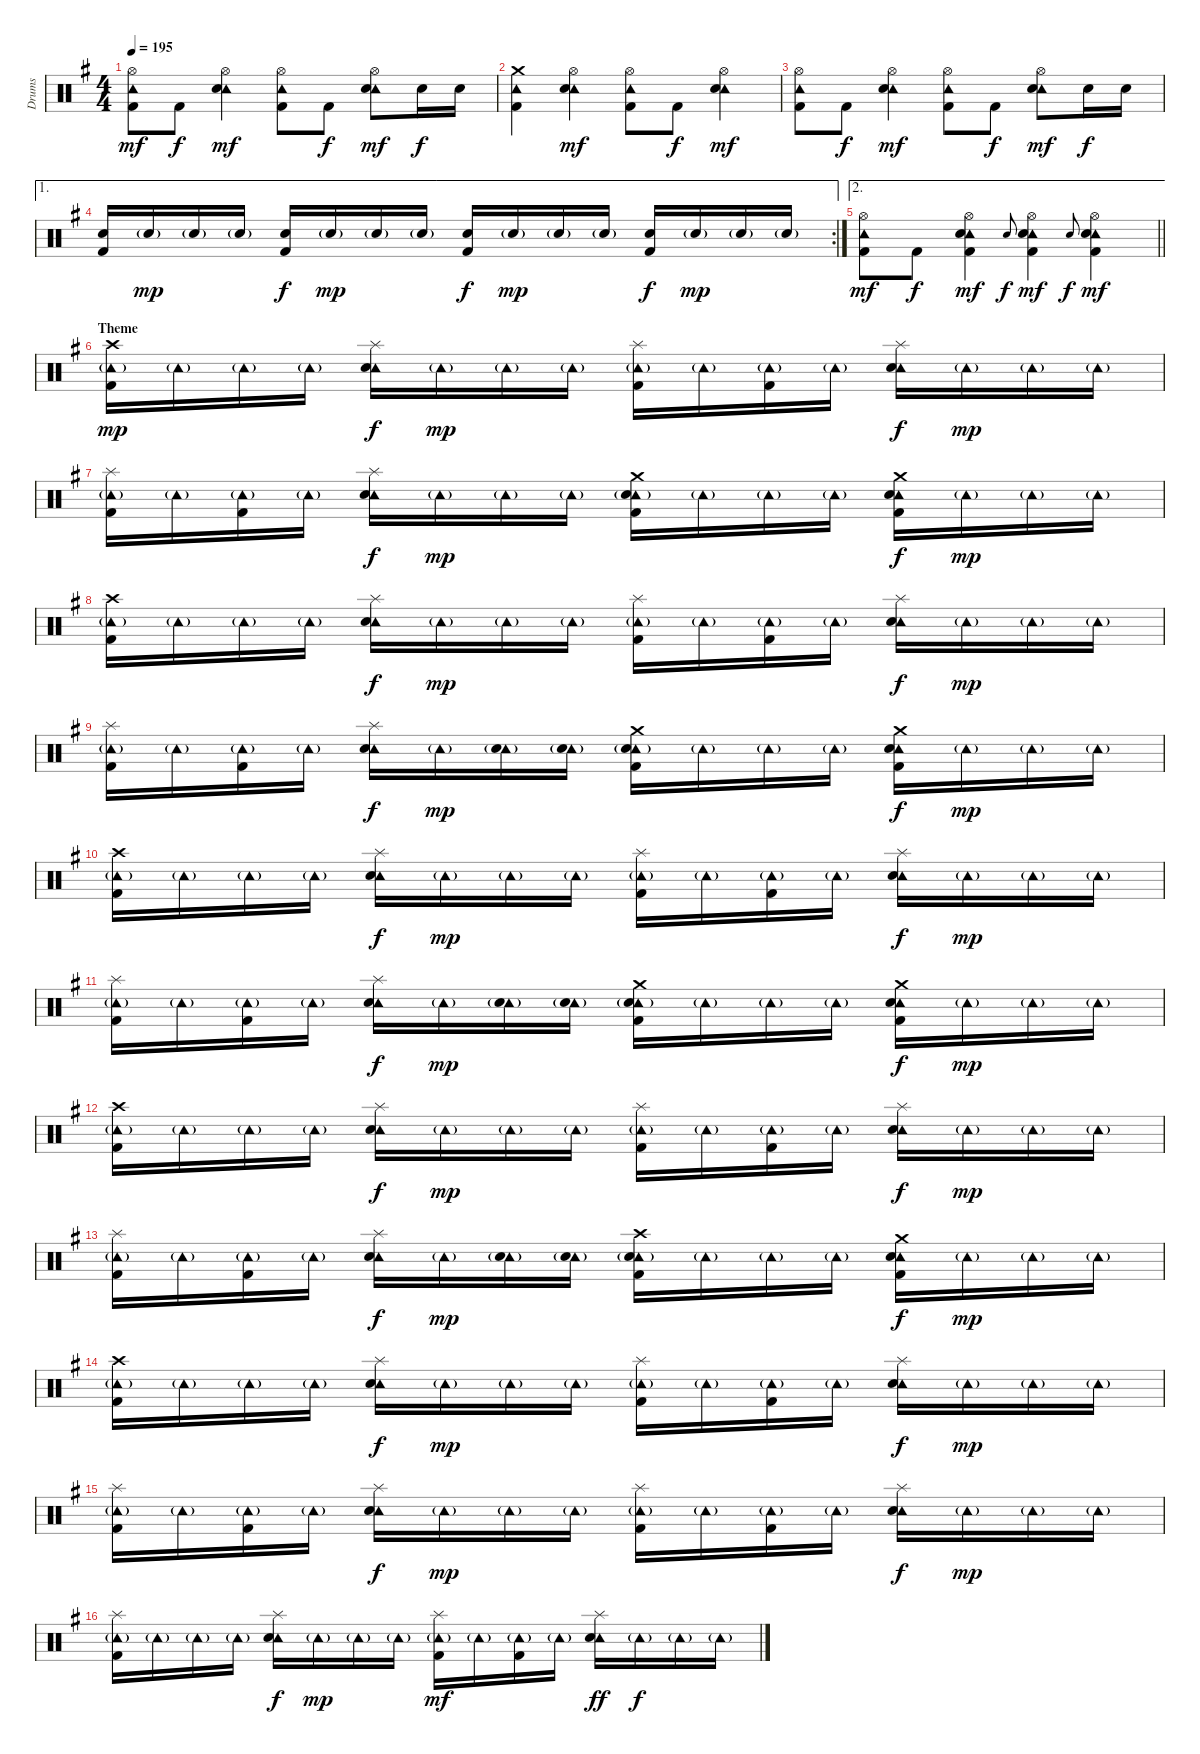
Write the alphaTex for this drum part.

\track ("Drums" "Drums") {instrument percussion}
\staff {score}
\articulation defaults
\ts (4 4)
\tempo 195
\clef neutral
\ks g
("Hi-Hat (open)" "Tambourine (hit)" "Kick (hit) 2").8{dy mf} "Kick (hit) 2".8{dy f} ("Hi-Hat (open)" "Tambourine (hit)" "Electric Snare (hit)").4{dy mf} ("Hi-Hat (open)" "Tambourine (hit)" "Kick (hit) 2").8 "Kick (hit) 2".8{dy f} ("Hi-Hat (open)" "Tambourine (hit)" "Electric Snare (hit)").8{dy mf} "Electric Snare (hit)".16{dy f} "Electric Snare (hit)".16 |
("Crash medium (hit)" "Tambourine (hit)" "Kick (hit) 2").4 ("Hi-Hat (open)" "Tambourine (hit)" "Electric Snare (hit)").4{dy mf} ("Hi-Hat (open)" "Tambourine (hit)" "Kick (hit) 2").8 "Kick (hit) 2".8{dy f} ("Hi-Hat (open)" "Tambourine (hit)" "Electric Snare (hit)").4{dy mf} |
("Hi-Hat (open)" "Tambourine (hit)" "Kick (hit) 2").8 "Kick (hit) 2".8{dy f} ("Hi-Hat (open)" "Tambourine (hit)" "Electric Snare (hit)").4{dy mf} ("Hi-Hat (open)" "Tambourine (hit)" "Kick (hit) 2").8 "Kick (hit) 2".8{dy f} ("Hi-Hat (open)" "Tambourine (hit)" "Electric Snare (hit)").8{dy mf} "Electric Snare (hit)".16{dy f} "Electric Snare (hit)".16 |
\ae 1
\rc 2
("Electric Snare (hit)" "Kick (hit) 2").16 "Electric Snare (hit)"{g}.16{dy mp} "Electric Snare (hit)"{g}.16 "Electric Snare (hit)"{g}.16 ("Electric Snare (hit)" "Kick (hit) 2").16{dy f} "Electric Snare (hit)"{g}.16{dy mp} "Electric Snare (hit)"{g}.16 "Electric Snare (hit)"{g}.16 ("Electric Snare (hit)" "Kick (hit) 2").16{dy f} "Electric Snare (hit)"{g}.16{dy mp} "Electric Snare (hit)"{g}.16 "Electric Snare (hit)"{g}.16 ("Electric Snare (hit)" "Kick (hit) 2").16{dy f} "Electric Snare (hit)"{g}.16{dy mp} "Electric Snare (hit)"{g}.16 "Electric Snare (hit)"{g}.16 |
\ae 2
\barLineRight lightlight
("Hi-Hat (open)" "Tambourine (hit)" "Kick (hit) 2").8{dy mf} "Kick (hit) 2".8{dy f} ("Hi-Hat (open)" "Tambourine (hit)" "Electric Snare (hit)" "Kick (hit) 2").4{dy mf} "Electric Snare (hit)".8{gr onbeat dy f} ("Hi-Hat (open)" "Tambourine (hit)" "Electric Snare (hit)" "Kick (hit) 2").4{dy mf} "Electric Snare (hit)".8{gr onbeat dy f} ("Hi-Hat (open)" "Tambourine (hit)" "Electric Snare (hit)" "Kick (hit) 2").4{dy mf} |
\section ("" "Theme")
("Crash high (hit)" "Tambourine (hit)"{g} "Kick (hit) 2").16{dy mp} "Tambourine (hit)"{g}.16 "Tambourine (hit)"{g}.16 "Tambourine (hit)"{g}.16 ("Splash (hit)" "Tambourine (hit)" "Electric Snare (hit)").16{dy f} "Tambourine (hit)"{g}.16{dy mp} "Tambourine (hit)"{g}.16 "Tambourine (hit)"{g}.16 ("Splash (hit)" "Tambourine (hit)"{g} "Kick (hit) 2").16 "Tambourine (hit)"{g}.16 ("Tambourine (hit)"{g} "Kick (hit) 2").16 "Tambourine (hit)"{g}.16 ("Splash (hit)" "Tambourine (hit)" "Electric Snare (hit)").16{dy f} "Tambourine (hit)"{g}.16{dy mp} "Tambourine (hit)"{g}.16 "Tambourine (hit)"{g}.16 |
("Splash (hit)" "Tambourine (hit)"{g} "Kick (hit) 2").16 "Tambourine (hit)"{g}.16 ("Tambourine (hit)"{g} "Kick (hit) 2").16 "Tambourine (hit)"{g}.16 ("Splash (hit)" "Tambourine (hit)" "Electric Snare (hit)").16{dy f} "Tambourine (hit)"{g}.16{dy mp} "Tambourine (hit)"{g}.16 "Tambourine (hit)"{g}.16 ("Crash medium (hit)" "Tambourine (hit)"{g} "Electric Snare (hit)" "Kick (hit) 2").16 "Tambourine (hit)"{g}.16 "Tambourine (hit)"{g}.16 "Tambourine (hit)"{g}.16 ("Crash medium (hit)" "Tambourine (hit)" "Electric Snare (hit)" "Kick (hit) 2").16{dy f} "Tambourine (hit)"{g}.16{dy mp} "Tambourine (hit)"{g}.16 "Tambourine (hit)"{g}.16 |
("Crash high (hit)" "Tambourine (hit)"{g} "Kick (hit) 2").16 "Tambourine (hit)"{g}.16 "Tambourine (hit)"{g}.16 "Tambourine (hit)"{g}.16 ("Splash (hit)" "Tambourine (hit)" "Electric Snare (hit)").16{dy f} "Tambourine (hit)"{g}.16{dy mp} "Tambourine (hit)"{g}.16 "Tambourine (hit)"{g}.16 ("Splash (hit)" "Tambourine (hit)"{g} "Kick (hit) 2").16 "Tambourine (hit)"{g}.16 ("Tambourine (hit)"{g} "Kick (hit) 2").16 "Tambourine (hit)"{g}.16 ("Splash (hit)" "Tambourine (hit)" "Electric Snare (hit)").16{dy f} "Tambourine (hit)"{g}.16{dy mp} "Tambourine (hit)"{g}.16 "Tambourine (hit)"{g}.16 |
("Splash (hit)" "Tambourine (hit)"{g} "Kick (hit) 2").16 "Tambourine (hit)"{g}.16 ("Tambourine (hit)"{g} "Kick (hit) 2").16 "Tambourine (hit)"{g}.16 ("Splash (hit)" "Tambourine (hit)" "Electric Snare (hit)").16{dy f} "Tambourine (hit)"{g}.16{dy mp} ("Tambourine (hit)"{g} "Electric Snare (hit)").16 ("Tambourine (hit)"{g} "Electric Snare (hit)").16 ("Crash medium (hit)" "Tambourine (hit)"{g} "Electric Snare (hit)" "Kick (hit) 2").16 "Tambourine (hit)"{g}.16 "Tambourine (hit)"{g}.16 "Tambourine (hit)"{g}.16 ("Crash medium (hit)" "Tambourine (hit)" "Electric Snare (hit)" "Kick (hit) 2").16{dy f} "Tambourine (hit)"{g}.16{dy mp} "Tambourine (hit)"{g}.16 "Tambourine (hit)"{g}.16 |
("Crash high (hit)" "Tambourine (hit)"{g} "Kick (hit) 2").16 "Tambourine (hit)"{g}.16 "Tambourine (hit)"{g}.16 "Tambourine (hit)"{g}.16 ("Splash (hit)" "Tambourine (hit)" "Electric Snare (hit)").16{dy f} "Tambourine (hit)"{g}.16{dy mp} "Tambourine (hit)"{g}.16 "Tambourine (hit)"{g}.16 ("Splash (hit)" "Tambourine (hit)"{g} "Kick (hit) 2").16 "Tambourine (hit)"{g}.16 ("Tambourine (hit)"{g} "Kick (hit) 2").16 "Tambourine (hit)"{g}.16 ("Splash (hit)" "Tambourine (hit)" "Electric Snare (hit)").16{dy f} "Tambourine (hit)"{g}.16{dy mp} "Tambourine (hit)"{g}.16 "Tambourine (hit)"{g}.16 |
("Splash (hit)" "Tambourine (hit)"{g} "Kick (hit) 2").16 "Tambourine (hit)"{g}.16 ("Tambourine (hit)"{g} "Kick (hit) 2").16 "Tambourine (hit)"{g}.16 ("Splash (hit)" "Tambourine (hit)" "Electric Snare (hit)").16{dy f} "Tambourine (hit)"{g}.16{dy mp} ("Tambourine (hit)"{g} "Electric Snare (hit)").16 ("Tambourine (hit)"{g} "Electric Snare (hit)").16 ("Crash medium (hit)" "Tambourine (hit)"{g} "Electric Snare (hit)" "Kick (hit) 2").16 "Tambourine (hit)"{g}.16 "Tambourine (hit)"{g}.16 "Tambourine (hit)"{g}.16 ("Crash medium (hit)" "Tambourine (hit)" "Electric Snare (hit)" "Kick (hit) 2").16{dy f} "Tambourine (hit)"{g}.16{dy mp} "Tambourine (hit)"{g}.16 "Tambourine (hit)"{g}.16 |
("Crash high (hit)" "Tambourine (hit)"{g} "Kick (hit) 2").16 "Tambourine (hit)"{g}.16 "Tambourine (hit)"{g}.16 "Tambourine (hit)"{g}.16 ("Splash (hit)" "Tambourine (hit)" "Electric Snare (hit)").16{dy f} "Tambourine (hit)"{g}.16{dy mp} "Tambourine (hit)"{g}.16 "Tambourine (hit)"{g}.16 ("Splash (hit)" "Tambourine (hit)"{g} "Kick (hit) 2").16 "Tambourine (hit)"{g}.16 ("Tambourine (hit)"{g} "Kick (hit) 2").16 "Tambourine (hit)"{g}.16 ("Splash (hit)" "Tambourine (hit)" "Electric Snare (hit)").16{dy f} "Tambourine (hit)"{g}.16{dy mp} "Tambourine (hit)"{g}.16 "Tambourine (hit)"{g}.16 |
("Splash (hit)" "Tambourine (hit)"{g} "Kick (hit) 2").16 "Tambourine (hit)"{g}.16 ("Tambourine (hit)"{g} "Kick (hit) 2").16 "Tambourine (hit)"{g}.16 ("Splash (hit)" "Tambourine (hit)" "Electric Snare (hit)").16{dy f} "Tambourine (hit)"{g}.16{dy mp} ("Tambourine (hit)"{g} "Electric Snare (hit)").16 ("Tambourine (hit)"{g} "Electric Snare (hit)").16 ("Crash high (hit)" "Tambourine (hit)"{g} "Electric Snare (hit)" "Kick (hit) 2").16 "Tambourine (hit)"{g}.16 "Tambourine (hit)"{g}.16 "Tambourine (hit)"{g}.16 ("Crash medium (hit)" "Tambourine (hit)" "Electric Snare (hit)" "Kick (hit) 2").16{dy f} "Tambourine (hit)"{g}.16{dy mp} "Tambourine (hit)"{g}.16 "Tambourine (hit)"{g}.16 |
("Crash high (hit)" "Tambourine (hit)"{g} "Kick (hit) 2").16 "Tambourine (hit)"{g}.16 "Tambourine (hit)"{g}.16 "Tambourine (hit)"{g}.16 ("Splash (hit)" "Tambourine (hit)" "Electric Snare (hit)").16{dy f} "Tambourine (hit)"{g}.16{dy mp} "Tambourine (hit)"{g}.16 "Tambourine (hit)"{g}.16 ("Splash (hit)" "Tambourine (hit)"{g} "Kick (hit) 2").16 "Tambourine (hit)"{g}.16 ("Tambourine (hit)"{g} "Kick (hit) 2").16 "Tambourine (hit)"{g}.16 ("Splash (hit)" "Tambourine (hit)" "Electric Snare (hit)").16{dy f} "Tambourine (hit)"{g}.16{dy mp} "Tambourine (hit)"{g}.16 "Tambourine (hit)"{g}.16 |
("Splash (hit)" "Tambourine (hit)"{g} "Kick (hit) 2").16 "Tambourine (hit)"{g}.16 ("Tambourine (hit)"{g} "Kick (hit) 2").16 "Tambourine (hit)"{g}.16 ("Splash (hit)" "Tambourine (hit)" "Electric Snare (hit)").16{dy f} "Tambourine (hit)"{g}.16{dy mp} "Tambourine (hit)"{g}.16 "Tambourine (hit)"{g}.16 ("Splash (hit)" "Tambourine (hit)"{g} "Kick (hit) 2").16 "Tambourine (hit)"{g}.16 ("Tambourine (hit)"{g} "Kick (hit) 2").16 "Tambourine (hit)"{g}.16 ("Splash (hit)" "Tambourine (hit)" "Electric Snare (hit)").16{dy f} "Tambourine (hit)"{g}.16{dy mp} "Tambourine (hit)"{g}.16 "Tambourine (hit)"{g}.16 |
("Splash (hit)" "Tambourine (hit)"{g} "Kick (hit) 2").16 "Tambourine (hit)"{g}.16 "Tambourine (hit)"{g}.16 "Tambourine (hit)"{g}.16 ("Splash (hit)" "Tambourine (hit)" "Electric Snare (hit)").16{dy f} "Tambourine (hit)"{g}.16{dy mp} "Tambourine (hit)"{g}.16 "Tambourine (hit)"{g}.16 ("Splash (hit)" "Tambourine (hit)"{g} "Kick (hit) 2").16{dy mf} "Tambourine (hit)"{g}.16 ("Tambourine (hit)"{g} "Kick (hit) 2").16 "Tambourine (hit)"{g}.16 ("Splash (hit)" "Tambourine (hit)" "Electric Snare (hit)").16{dy ff} "Tambourine (hit)"{g}.16{dy f} "Tambourine (hit)"{g}.16 "Tambourine (hit)"{g}.16
